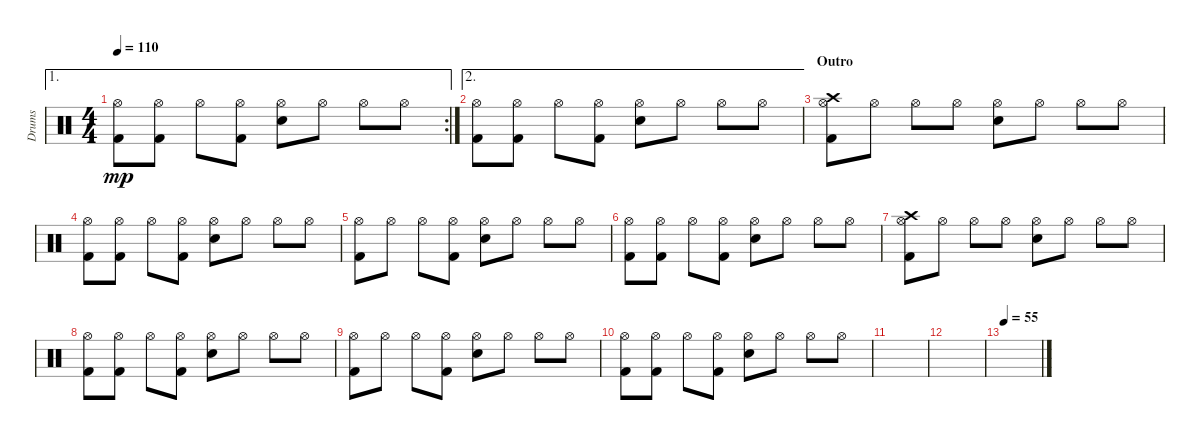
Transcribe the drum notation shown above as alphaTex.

\track ("Drums" "Drums") {instrument percussion}
\staff {score}
\articulation defaults
\ae 1
\rc 2
\ts (4 4)
\tempo 110
\clef neutral
\ks c
("Hi-Hat (open)" "Kick (hit) 2").8{dy mp} ("Hi-Hat (open)" "Kick (hit) 2").8 "Hi-Hat (open)".8 ("Hi-Hat (open)" "Kick (hit) 2").8 ("Hi-Hat (open)" "Snare (hit) 2").8 "Hi-Hat (open)".8 "Hi-Hat (open)".8 "Hi-Hat (open)".8 |
\ae 2
("Hi-Hat (open)" "Kick (hit) 2").8 ("Hi-Hat (open)" "Kick (hit) 2").8 "Hi-Hat (open)".8 ("Hi-Hat (open)" "Kick (hit) 2").8 ("Hi-Hat (open)" "Snare (hit) 2").8 "Hi-Hat (open)".8 "Hi-Hat (open)".8 "Hi-Hat (open)".8 |
\section ("" "Outro")
("Crash high (hit)" "Hi-Hat (open)" "Kick (hit) 2").8 "Hi-Hat (open)".8 "Hi-Hat (open)".8 "Hi-Hat (open)".8 ("Hi-Hat (open)" "Snare (hit) 2").8 "Hi-Hat (open)".8 "Hi-Hat (open)".8 "Hi-Hat (open)".8 |
("Hi-Hat (open)" "Kick (hit) 2").8 ("Hi-Hat (open)" "Kick (hit) 2").8 "Hi-Hat (open)".8 ("Hi-Hat (open)" "Kick (hit) 2").8 ("Hi-Hat (open)" "Snare (hit) 2").8 "Hi-Hat (open)".8 "Hi-Hat (open)".8 "Hi-Hat (open)".8 |
("Hi-Hat (open)" "Kick (hit) 2").8 "Hi-Hat (open)".8 "Hi-Hat (open)".8 ("Hi-Hat (open)" "Kick (hit) 2").8 ("Hi-Hat (open)" "Snare (hit) 2").8 "Hi-Hat (open)".8 "Hi-Hat (open)".8 "Hi-Hat (open)".8 |
("Hi-Hat (open)" "Kick (hit) 2").8 ("Hi-Hat (open)" "Kick (hit) 2").8 "Hi-Hat (open)".8 ("Hi-Hat (open)" "Kick (hit) 2").8 ("Hi-Hat (open)" "Snare (hit) 2").8 "Hi-Hat (open)".8 "Hi-Hat (open)".8 "Hi-Hat (open)".8 |
("Crash high (hit)" "Hi-Hat (open)" "Kick (hit) 2").8 "Hi-Hat (open)".8 "Hi-Hat (open)".8 "Hi-Hat (open)".8 ("Hi-Hat (open)" "Snare (hit) 2").8 "Hi-Hat (open)".8 "Hi-Hat (open)".8 "Hi-Hat (open)".8 |
("Hi-Hat (open)" "Kick (hit) 2").8 ("Hi-Hat (open)" "Kick (hit) 2").8 "Hi-Hat (open)".8 ("Hi-Hat (open)" "Kick (hit) 2").8 ("Hi-Hat (open)" "Snare (hit) 2").8 "Hi-Hat (open)".8 "Hi-Hat (open)".8 "Hi-Hat (open)".8 |
("Hi-Hat (open)" "Kick (hit) 2").8 "Hi-Hat (open)".8 "Hi-Hat (open)".8 ("Hi-Hat (open)" "Kick (hit) 2").8 ("Hi-Hat (open)" "Snare (hit) 2").8 "Hi-Hat (open)".8 "Hi-Hat (open)".8 "Hi-Hat (open)".8 |
("Hi-Hat (open)" "Kick (hit) 2").8 ("Hi-Hat (open)" "Kick (hit) 2").8 "Hi-Hat (open)".8 ("Hi-Hat (open)" "Kick (hit) 2").8 ("Hi-Hat (open)" "Snare (hit) 2").8 "Hi-Hat (open)".8 "Hi-Hat (open)".8 "Hi-Hat (open)".8 |
|
|
\tempo 55
